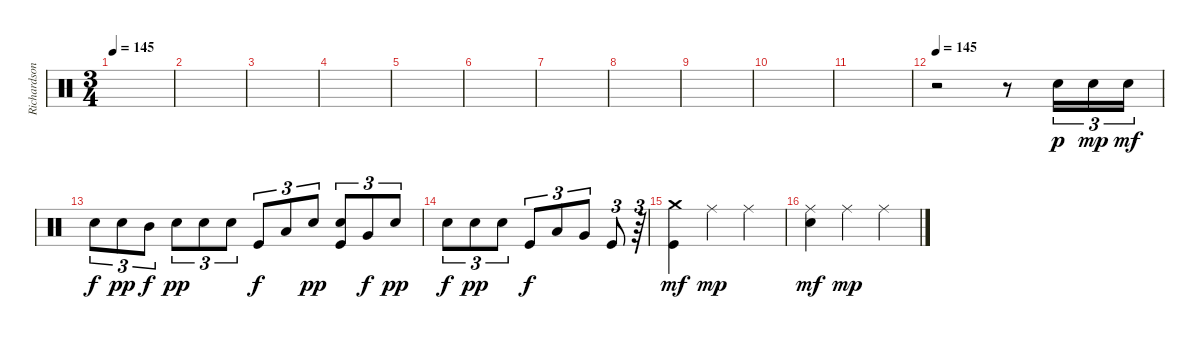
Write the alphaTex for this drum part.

\track ("Richardson" "Richardson") {instrument percussion}
\staff {score}
\articulation defaults
\ts (3 4)
\tempo 145
\clef neutral
\ks c
|
|
|
|
|
|
|
|
|
|
|
\tempo 145
r.2 r.8 "Electric Snare (hit)".16{tu (3 2) dy p} "Electric Snare (hit)".16{tu (3 2) dy mp} "Electric Snare (hit)".16{tu (3 2) dy mf} |
"Electric Snare (hit)".8{tu (3 2) dy f} "Electric Snare (hit)".8{tu (3 2) dy pp} "Mid Tom (hit)".8{tu (3 2) dy f} "Electric Snare (hit)".8{tu (3 2) dy pp} "Electric Snare (hit)".8{tu (3 2)} "Electric Snare (hit)".8{tu (3 2)} "Kick (hit)".8{tu (3 2) dy f} "Low Tom (hit)".8{tu (3 2)} "Electric Snare (hit)".8{tu (3 2) dy pp} ("Electric Snare (hit)" "Kick (hit)").8{tu (3 2)} "Very Low Tom (hit)".8{tu (3 2) dy f} "Electric Snare (hit)".8{tu (3 2) dy pp} |
"Electric Snare (hit)".8{tu (3 2) dy f} "Electric Snare (hit)".8{tu (3 2) dy pp} "Electric Snare (hit)".8{tu (3 2)} "Kick (hit)".8{tu (3 2) dy f} "Low Tom (hit)".8{tu (3 2)} "Very Low Tom (hit)".8{tu (3 2)} "Kick (hit)".8{tu (3 2)} r.64{tu (3 2)} |
("Crash medium (hit)" "Kick (hit)").4{dy mf} "Ride (middle)".4{dy mp} "Ride (middle)".4 |
("Ride (middle)" "Electric Snare (hit)").4{dy mf} "Ride (middle)".4{dy mp} "Ride (middle)".4
